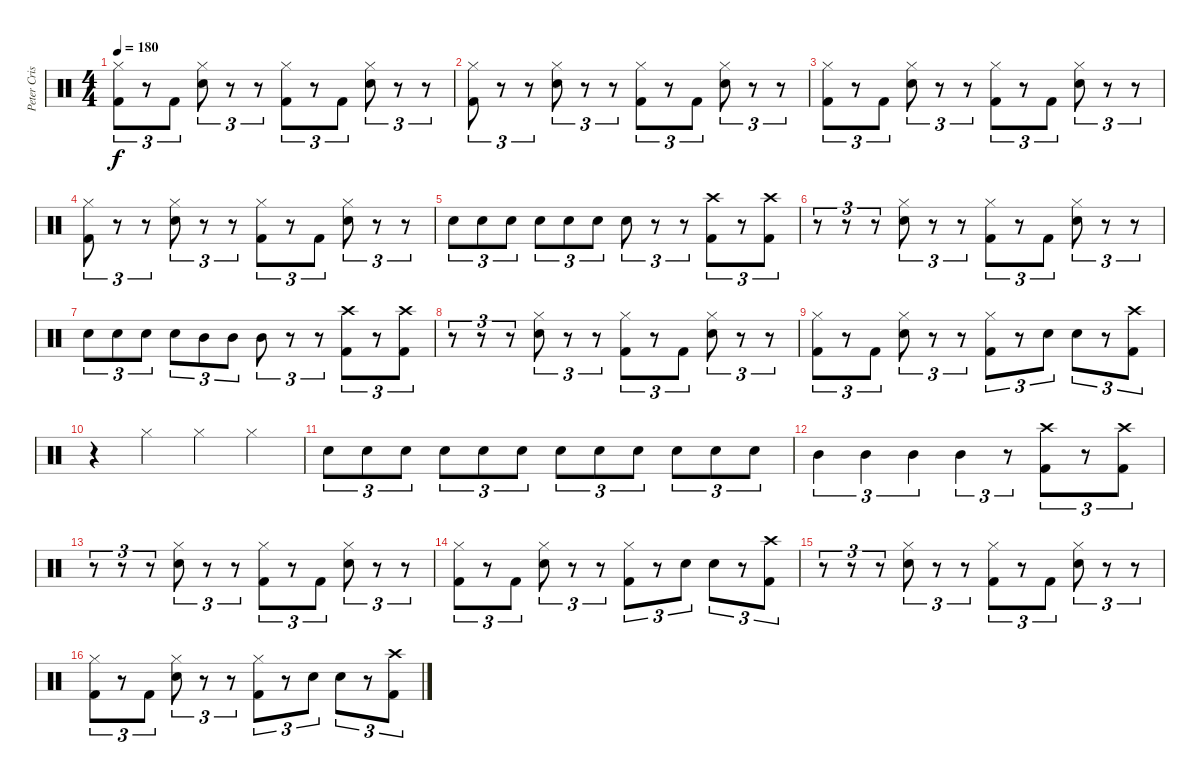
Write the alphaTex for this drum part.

\track ("Peter Criss" "Peter Cris") {instrument percussion}
\staff {score}
\articulation defaults
\ts (4 4)
\tempo 180
\clef neutral
\ks c
("Hi-Hat (closed)" "Kick (hit) 2").8{tu (3 2) dy f} r.8{tu (3 2)} "Kick (hit) 2".8{tu (3 2)} ("Hi-Hat (closed)" "Electric Snare (hit)").8{tu (3 2)} r.8{tu (3 2)} r.8{tu (3 2)} ("Hi-Hat (closed)" "Kick (hit) 2").8{tu (3 2)} r.8{tu (3 2)} "Kick (hit) 2".8{tu (3 2)} ("Hi-Hat (closed)" "Electric Snare (hit)").8{tu (3 2)} r.8{tu (3 2)} r.8{tu (3 2)} |
("Hi-Hat (closed)" "Kick (hit) 2").8{tu (3 2)} r.8{tu (3 2)} r.8{tu (3 2)} ("Hi-Hat (closed)" "Electric Snare (hit)").8{tu (3 2)} r.8{tu (3 2)} r.8{tu (3 2)} ("Hi-Hat (closed)" "Kick (hit) 2").8{tu (3 2)} r.8{tu (3 2)} "Kick (hit) 2".8{tu (3 2)} ("Hi-Hat (closed)" "Electric Snare (hit)").8{tu (3 2)} r.8{tu (3 2)} r.8{tu (3 2)} |
("Hi-Hat (closed)" "Kick (hit) 2").8{tu (3 2)} r.8{tu (3 2)} "Kick (hit) 2".8{tu (3 2)} ("Hi-Hat (closed)" "Electric Snare (hit)").8{tu (3 2)} r.8{tu (3 2)} r.8{tu (3 2)} ("Hi-Hat (closed)" "Kick (hit) 2").8{tu (3 2)} r.8{tu (3 2)} "Kick (hit) 2".8{tu (3 2)} ("Hi-Hat (closed)" "Electric Snare (hit)").8{tu (3 2)} r.8{tu (3 2)} r.8{tu (3 2)} |
("Hi-Hat (closed)" "Kick (hit) 2").8{tu (3 2)} r.8{tu (3 2)} r.8{tu (3 2)} ("Hi-Hat (closed)" "Electric Snare (hit)").8{tu (3 2)} r.8{tu (3 2)} r.8{tu (3 2)} ("Hi-Hat (closed)" "Kick (hit) 2").8{tu (3 2)} r.8{tu (3 2)} "Kick (hit) 2".8{tu (3 2)} ("Hi-Hat (closed)" "Electric Snare (hit)").8{tu (3 2)} r.8{tu (3 2)} r.8{tu (3 2)} |
"Electric Snare (hit)".8{tu (3 2)} "Electric Snare (hit)".8{tu (3 2)} "Electric Snare (hit)".8{tu (3 2)} "Electric Snare (hit)".8{tu (3 2)} "Electric Snare (hit)".8{tu (3 2)} "Electric Snare (hit)".8{tu (3 2)} "Electric Snare (hit)".8{tu (3 2)} r.8{tu (3 2)} r.8{tu (3 2)} ("Crash high (hit)" "Kick (hit) 2").8{tu (3 2)} r.8{tu (3 2)} ("Crash high (hit)" "Kick (hit) 2").8{tu (3 2)} |
r.8{tu (3 2)} r.8{tu (3 2)} r.8{tu (3 2)} ("Hi-Hat (closed)" "Electric Snare (hit)").8{tu (3 2)} r.8{tu (3 2)} r.8{tu (3 2)} ("Hi-Hat (closed)" "Kick (hit) 2").8{tu (3 2)} r.8{tu (3 2)} "Kick (hit) 2".8{tu (3 2)} ("Hi-Hat (closed)" "Electric Snare (hit)").8{tu (3 2)} r.8{tu (3 2)} r.8{tu (3 2)} |
"Electric Snare (hit)".8{tu (3 2)} "Electric Snare (hit)".8{tu (3 2)} "Electric Snare (hit)".8{tu (3 2)} "Electric Snare (hit)".8{tu (3 2)} "Mid Tom (hit)".8{tu (3 2)} "Mid Tom (hit)".8{tu (3 2)} "Mid Tom (hit)".8{tu (3 2)} r.8{tu (3 2)} r.8{tu (3 2)} ("Crash high (hit)" "Kick (hit) 2").8{tu (3 2)} r.8{tu (3 2)} ("Crash high (hit)" "Kick (hit) 2").8{tu (3 2)} |
r.8{tu (3 2)} r.8{tu (3 2)} r.8{tu (3 2)} ("Hi-Hat (closed)" "Electric Snare (hit)").8{tu (3 2)} r.8{tu (3 2)} r.8{tu (3 2)} ("Hi-Hat (closed)" "Kick (hit) 2").8{tu (3 2)} r.8{tu (3 2)} "Kick (hit) 2".8{tu (3 2)} ("Hi-Hat (closed)" "Electric Snare (hit)").8{tu (3 2)} r.8{tu (3 2)} r.8{tu (3 2)} |
("Hi-Hat (closed)" "Kick (hit) 2").8{tu (3 2)} r.8{tu (3 2)} "Kick (hit) 2".8{tu (3 2)} ("Hi-Hat (closed)" "Electric Snare (hit)").8{tu (3 2)} r.8{tu (3 2)} r.8{tu (3 2)} ("Hi-Hat (closed)" "Kick (hit) 2").8{tu (3 2)} r.8{tu (3 2)} "Electric Snare (hit)".8{tu (3 2)} "Electric Snare (hit)".8{tu (3 2)} r.8{tu (3 2)} ("Crash high (hit)" "Kick (hit) 2").8{tu (3 2)} |
r.4 "Hi-Hat (closed)".4 "Hi-Hat (closed)".4 "Hi-Hat (closed)".4 |
"Electric Snare (hit)".8{tu (3 2)} "Electric Snare (hit)".8{tu (3 2)} "Electric Snare (hit)".8{tu (3 2)} "Electric Snare (hit)".8{tu (3 2)} "Electric Snare (hit)".8{tu (3 2)} "Electric Snare (hit)".8{tu (3 2)} "Electric Snare (hit)".8{tu (3 2)} "Electric Snare (hit)".8{tu (3 2)} "Electric Snare (hit)".8{tu (3 2)} "Electric Snare (hit)".8{tu (3 2)} "Electric Snare (hit)".8{tu (3 2)} "Electric Snare (hit)".8{tu (3 2)} |
"Mid Tom (hit)".4{tu (3 2)} "Mid Tom (hit)".4{tu (3 2)} "Mid Tom (hit)".4{tu (3 2)} "Mid Tom (hit)".4{tu (3 2)} r.8{tu (3 2)} ("Crash high (hit)" "Kick (hit) 2").8{tu (3 2)} r.8{tu (3 2)} ("Crash high (hit)" "Kick (hit) 2").8{tu (3 2)} |
r.8{tu (3 2)} r.8{tu (3 2)} r.8{tu (3 2)} ("Hi-Hat (closed)" "Electric Snare (hit)").8{tu (3 2)} r.8{tu (3 2)} r.8{tu (3 2)} ("Hi-Hat (closed)" "Kick (hit) 2").8{tu (3 2)} r.8{tu (3 2)} "Kick (hit) 2".8{tu (3 2)} ("Hi-Hat (closed)" "Electric Snare (hit)").8{tu (3 2)} r.8{tu (3 2)} r.8{tu (3 2)} |
("Hi-Hat (closed)" "Kick (hit) 2").8{tu (3 2)} r.8{tu (3 2)} "Kick (hit) 2".8{tu (3 2)} ("Hi-Hat (closed)" "Electric Snare (hit)").8{tu (3 2)} r.8{tu (3 2)} r.8{tu (3 2)} ("Hi-Hat (closed)" "Kick (hit) 2").8{tu (3 2)} r.8{tu (3 2)} "Electric Snare (hit)".8{tu (3 2)} "Electric Snare (hit)".8{tu (3 2)} r.8{tu (3 2)} ("Crash high (hit)" "Kick (hit) 2").8{tu (3 2)} |
r.8{tu (3 2)} r.8{tu (3 2)} r.8{tu (3 2)} ("Hi-Hat (closed)" "Electric Snare (hit)").8{tu (3 2)} r.8{tu (3 2)} r.8{tu (3 2)} ("Hi-Hat (closed)" "Kick (hit) 2").8{tu (3 2)} r.8{tu (3 2)} "Kick (hit) 2".8{tu (3 2)} ("Hi-Hat (closed)" "Electric Snare (hit)").8{tu (3 2)} r.8{tu (3 2)} r.8{tu (3 2)} |
("Hi-Hat (closed)" "Kick (hit) 2").8{tu (3 2)} r.8{tu (3 2)} "Kick (hit) 2".8{tu (3 2)} ("Hi-Hat (closed)" "Electric Snare (hit)").8{tu (3 2)} r.8{tu (3 2)} r.8{tu (3 2)} ("Hi-Hat (closed)" "Kick (hit) 2").8{tu (3 2)} r.8{tu (3 2)} "Electric Snare (hit)".8{tu (3 2)} "Electric Snare (hit)".8{tu (3 2)} r.8{tu (3 2)} ("Crash high (hit)" "Kick (hit) 2").8{tu (3 2)}
